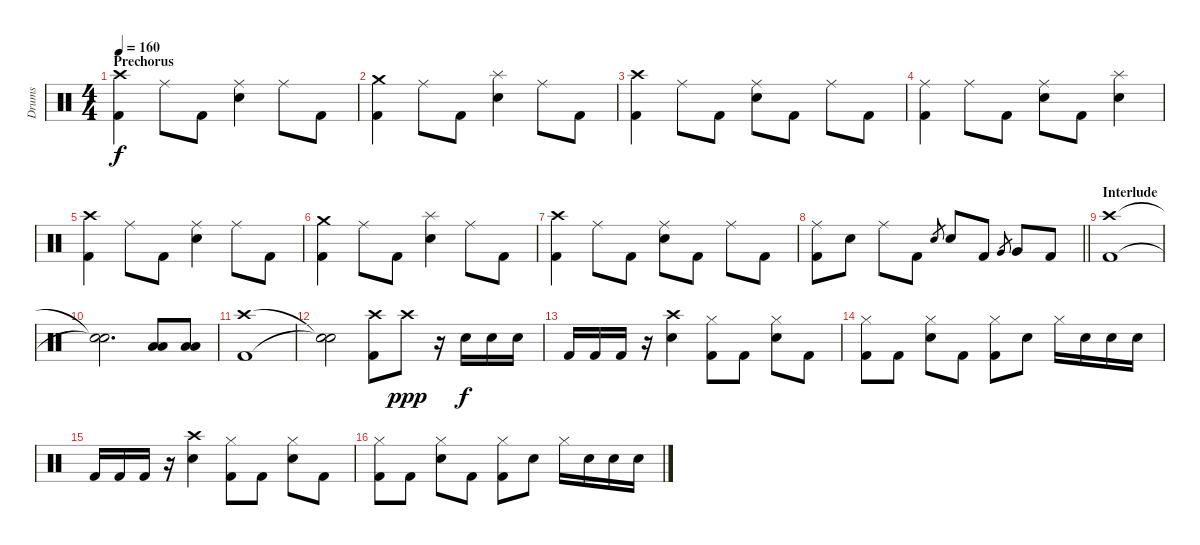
\track ("Drums" "Drums") {instrument percussion}
\staff {score}
\articulation defaults
\ts (4 4)
\section ("" "Prechorus")
\tempo 160
\clef neutral
\ks c
("Kick (hit) 2" "Crash high (hit)").4{dy f} "Ride (middle)".8 "Kick (hit) 2".8 ("Ride (middle)" "Electric Snare (hit)").4 "Ride (middle)".8 "Kick (hit) 2".8 |
("Kick (hit) 2" "Crash medium (hit)").4 "Ride (middle)".8 "Kick (hit) 2".8 ("Splash (hit)" "Electric Snare (hit)").4 "Ride (middle)".8 "Kick (hit) 2".8 |
("Kick (hit) 2" "Crash high (hit)").4 "Ride (middle)".8 "Kick (hit) 2".8 ("Ride (middle)" "Electric Snare (hit)").8 "Kick (hit) 2".8 "Ride (middle)".8 "Kick (hit) 2".8 |
("Kick (hit) 2" "Ride (middle)").4 "Ride (middle)".8 "Kick (hit) 2".8 ("Ride (middle)" "Electric Snare (hit)").8 "Kick (hit) 2".8 ("Splash (hit)" "Electric Snare (hit)").4 |
("Kick (hit) 2" "Crash high (hit)").4 "Ride (middle)".8 "Kick (hit) 2".8 ("Ride (middle)" "Electric Snare (hit)").4 "Ride (middle)".8 "Kick (hit) 2".8 |
("Kick (hit) 2" "Crash medium (hit)").4 "Ride (middle)".8 "Kick (hit) 2".8 ("Splash (hit)" "Electric Snare (hit)").4 "Ride (middle)".8 "Kick (hit) 2".8 |
("Kick (hit) 2" "Crash high (hit)").4 "Ride (middle)".8 "Kick (hit) 2".8 ("Ride (middle)" "Electric Snare (hit)").8 "Kick (hit) 2".8 "Ride (middle)".8 "Kick (hit) 2".8 |
\barLineRight lightlight
("Kick (hit) 2" "Ride (middle)").8 "Electric Snare (hit)".8 "Ride (middle)".8 "Kick (hit) 2".8 "Electric Snare (hit)".8{gr} "Electric Snare (hit)".8 "Kick (hit) 2".8 "Very Low Tom (hit)".8{gr} "Very Low Tom (hit)".8 "Kick (hit) 2".8 |
\section ("" "Interlude")
("Kick (hit) 2" "Crash high (hit)").1 |
("Snare (hit)"{t} "Snare (hit)"{t}).2{d} ("Low Floor Tom (hit)" "Low Tom (hit)").8 ("Low Floor Tom (hit)" "Low Tom (hit)").8 |
("Kick (hit) 2" "Crash high (hit)").1 |
("Snare (hit)"{t} "Snare (hit)"{t}).2 ("Kick (hit) 2" "Crash high (hit)").8 "Crash high (hit)".8{dy ppp} r.16 "Electric Snare (hit)".16{dy f} "Electric Snare (hit)".16 "Electric Snare (hit)".16 |
"Kick (hit) 2".16 "Kick (hit) 2".16 "Kick (hit) 2".16 r.16 ("Crash high (hit)" "Electric Snare (hit)").4 ("Kick (hit) 2" "Hi-Hat (closed)").8 "Kick (hit) 2".8 ("Hi-Hat (closed)" "Electric Snare (hit)").8 "Kick (hit) 2".8 |
("Kick (hit) 2" "Hi-Hat (closed)").8 "Kick (hit) 2".8 ("Hi-Hat (closed)" "Electric Snare (hit)").8 "Kick (hit) 2".8 ("Kick (hit) 2" "Hi-Hat (closed)").8 "Electric Snare (hit)".8 "Hi-Hat (closed)".16 "Electric Snare (hit)".16 "Electric Snare (hit)".16 "Electric Snare (hit)".16 |
"Kick (hit) 2".16 "Kick (hit) 2".16 "Kick (hit) 2".16 r.16 ("Crash high (hit)" "Electric Snare (hit)").4 ("Kick (hit) 2" "Hi-Hat (closed)").8 "Kick (hit) 2".8 ("Hi-Hat (closed)" "Electric Snare (hit)").8 "Kick (hit) 2".8 |
("Kick (hit) 2" "Hi-Hat (closed)").8 "Kick (hit) 2".8 ("Hi-Hat (closed)" "Electric Snare (hit)").8 "Kick (hit) 2".8 ("Kick (hit) 2" "Hi-Hat (closed)").8 "Electric Snare (hit)".8 "Hi-Hat (closed)".16 "Electric Snare (hit)".16 "Electric Snare (hit)".16 "Electric Snare (hit)".16
